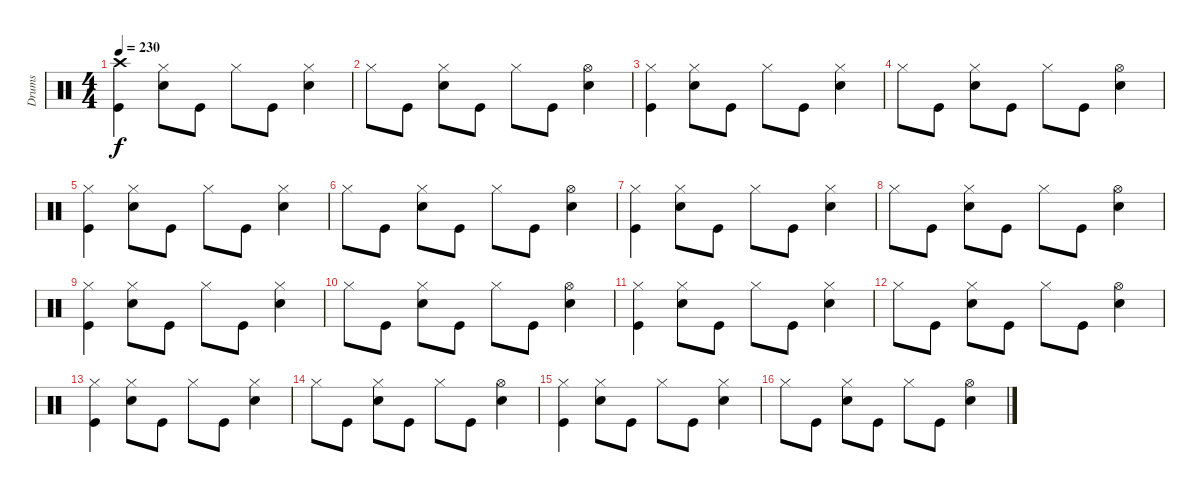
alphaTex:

\track ("Drums" "Drums") {instrument percussion}
\staff {score}
\articulation defaults
\ts (4 4)
\tempo 230
\clef neutral
\ks c
("Crash high (hit)" "Kick (hit)").4{dy f} ("Hi-Hat (closed)" "Electric Snare (hit)").8 "Kick (hit)".8 "Hi-Hat (closed)".8 "Kick (hit)".8 ("Hi-Hat (closed)" "Electric Snare (hit)").4 |
"Hi-Hat (closed)".8 "Kick (hit)".8 ("Hi-Hat (closed)" "Electric Snare (hit)").8 "Kick (hit)".8 "Hi-Hat (closed)".8 "Kick (hit)".8 ("Hi-Hat (open)" "Electric Snare (hit)").4 |
("Hi-Hat (closed)" "Kick (hit)").4 ("Hi-Hat (closed)" "Electric Snare (hit)").8 "Kick (hit)".8 "Hi-Hat (closed)".8 "Kick (hit)".8 ("Hi-Hat (closed)" "Electric Snare (hit)").4 |
"Hi-Hat (closed)".8 "Kick (hit)".8 ("Hi-Hat (closed)" "Electric Snare (hit)").8 "Kick (hit)".8 "Hi-Hat (closed)".8 "Kick (hit)".8 ("Hi-Hat (open)" "Electric Snare (hit)").4 |
("Hi-Hat (closed)" "Kick (hit)").4 ("Hi-Hat (closed)" "Electric Snare (hit)").8 "Kick (hit)".8 "Hi-Hat (closed)".8 "Kick (hit)".8 ("Hi-Hat (closed)" "Electric Snare (hit)").4 |
"Hi-Hat (closed)".8 "Kick (hit)".8 ("Hi-Hat (closed)" "Electric Snare (hit)").8 "Kick (hit)".8 "Hi-Hat (closed)".8 "Kick (hit)".8 ("Hi-Hat (open)" "Electric Snare (hit)").4 |
("Hi-Hat (closed)" "Kick (hit)").4 ("Hi-Hat (closed)" "Electric Snare (hit)").8 "Kick (hit)".8 "Hi-Hat (closed)".8 "Kick (hit)".8 ("Hi-Hat (closed)" "Electric Snare (hit)").4 |
"Hi-Hat (closed)".8 "Kick (hit)".8 ("Hi-Hat (closed)" "Electric Snare (hit)").8 "Kick (hit)".8 "Hi-Hat (closed)".8 "Kick (hit)".8 ("Hi-Hat (open)" "Electric Snare (hit)").4 |
("Hi-Hat (closed)" "Kick (hit)").4 ("Hi-Hat (closed)" "Electric Snare (hit)").8 "Kick (hit)".8 "Hi-Hat (closed)".8 "Kick (hit)".8 ("Hi-Hat (closed)" "Electric Snare (hit)").4 |
"Hi-Hat (closed)".8 "Kick (hit)".8 ("Hi-Hat (closed)" "Electric Snare (hit)").8 "Kick (hit)".8 "Hi-Hat (closed)".8 "Kick (hit)".8 ("Hi-Hat (open)" "Electric Snare (hit)").4 |
("Hi-Hat (closed)" "Kick (hit)").4 ("Hi-Hat (closed)" "Electric Snare (hit)").8 "Kick (hit)".8 "Hi-Hat (closed)".8 "Kick (hit)".8 ("Hi-Hat (closed)" "Electric Snare (hit)").4 |
"Hi-Hat (closed)".8 "Kick (hit)".8 ("Hi-Hat (closed)" "Electric Snare (hit)").8 "Kick (hit)".8 "Hi-Hat (closed)".8 "Kick (hit)".8 ("Hi-Hat (open)" "Electric Snare (hit)").4 |
("Hi-Hat (closed)" "Kick (hit)").4 ("Hi-Hat (closed)" "Electric Snare (hit)").8 "Kick (hit)".8 "Hi-Hat (closed)".8 "Kick (hit)".8 ("Hi-Hat (closed)" "Electric Snare (hit)").4 |
"Hi-Hat (closed)".8 "Kick (hit)".8 ("Hi-Hat (closed)" "Electric Snare (hit)").8 "Kick (hit)".8 "Hi-Hat (closed)".8 "Kick (hit)".8 ("Hi-Hat (open)" "Electric Snare (hit)").4 |
("Hi-Hat (closed)" "Kick (hit)").4 ("Hi-Hat (closed)" "Electric Snare (hit)").8 "Kick (hit)".8 "Hi-Hat (closed)".8 "Kick (hit)".8 ("Hi-Hat (closed)" "Electric Snare (hit)").4 |
"Hi-Hat (closed)".8 "Kick (hit)".8 ("Hi-Hat (closed)" "Electric Snare (hit)").8 "Kick (hit)".8 "Hi-Hat (closed)".8 "Kick (hit)".8 ("Hi-Hat (open)" "Electric Snare (hit)").4
